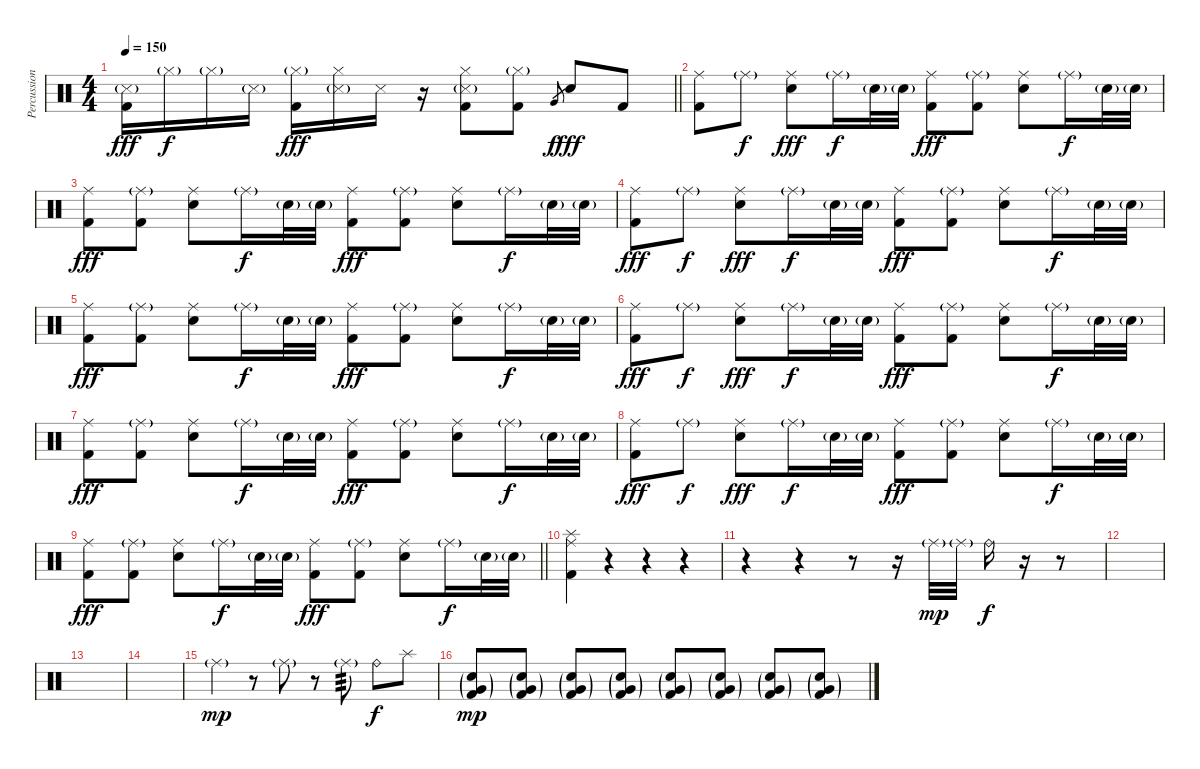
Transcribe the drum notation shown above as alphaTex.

\track ("Percussion" "Percussion") {instrument percussion}
\staff {score}
\articulation defaults
\ts (4 4)
\tempo 150
\clef neutral
\barLineRight lightlight
\ks c
("Snare (side stick) 3"{g} "Kick (hit) 2").16{dy fff} "Hi-Hat (closed)"{g}.16{dy f} "Hi-Hat (closed)"{g}.16 "Snare (side stick) 3"{g}.16 ("Hi-Hat (closed)"{g} "Kick (hit) 2").16{dy fff} ("Hi-Hat (closed)" "Snare (side stick) 3"{g}).16 "Snare (side stick) 3".16 r.16 ("Hi-Hat (closed)" "Snare (side stick) 3"{g} "Kick (hit) 2").8 ("Hi-Hat (closed)"{g} "Kick (hit) 2").8 "Very Low Tom (hit)".8{gr dy f} "Electric Snare (hit)".8{dy fff} "Kick (hit) 2".8 |
\section ("" "")
("Ride (middle)" "Kick (hit) 2").8 "Ride (middle)"{g}.8{dy f} ("Ride (middle)" "Electric Snare (hit)").8{dy fff} "Ride (middle)"{g}.16{dy f} "Electric Snare (hit)"{g}.32 "Electric Snare (hit)"{g}.32 ("Ride (middle)" "Kick (hit) 2").8{dy fff} ("Ride (middle)"{g} "Kick (hit) 2").8 ("Ride (middle)" "Electric Snare (hit)").8 "Ride (middle)"{g}.16{dy f} "Electric Snare (hit)"{g}.32 "Electric Snare (hit)"{g}.32 |
("Ride (middle)" "Kick (hit) 2").8{dy fff} ("Ride (middle)"{g} "Kick (hit) 2").8 ("Ride (middle)" "Electric Snare (hit)").8 "Ride (middle)"{g}.16{dy f} "Electric Snare (hit)"{g}.32 "Electric Snare (hit)"{g}.32 ("Ride (middle)" "Kick (hit) 2").8{dy fff} ("Ride (middle)"{g} "Kick (hit) 2").8 ("Ride (middle)" "Electric Snare (hit)").8 "Ride (middle)"{g}.16{dy f} "Electric Snare (hit)"{g}.32 "Electric Snare (hit)"{g}.32 |
("Ride (middle)" "Kick (hit) 2").8{dy fff} "Ride (middle)"{g}.8{dy f} ("Ride (middle)" "Electric Snare (hit)").8{dy fff} "Ride (middle)"{g}.16{dy f} "Electric Snare (hit)"{g}.32 "Electric Snare (hit)"{g}.32 ("Ride (middle)" "Kick (hit) 2").8{dy fff} ("Ride (middle)"{g} "Kick (hit) 2").8 ("Ride (middle)" "Electric Snare (hit)").8 "Ride (middle)"{g}.16{dy f} "Electric Snare (hit)"{g}.32 "Electric Snare (hit)"{g}.32 |
("Ride (middle)" "Kick (hit) 2").8{dy fff} ("Ride (middle)"{g} "Kick (hit) 2").8 ("Ride (middle)" "Electric Snare (hit)").8 "Ride (middle)"{g}.16{dy f} "Electric Snare (hit)"{g}.32 "Electric Snare (hit)"{g}.32 ("Ride (middle)" "Kick (hit) 2").8{dy fff} ("Ride (middle)"{g} "Kick (hit) 2").8 ("Ride (middle)" "Electric Snare (hit)").8 "Ride (middle)"{g}.16{dy f} "Electric Snare (hit)"{g}.32 "Electric Snare (hit)"{g}.32 |
("Ride (middle)" "Kick (hit) 2").8{dy fff} "Ride (middle)"{g}.8{dy f} ("Ride (middle)" "Electric Snare (hit)").8{dy fff} "Ride (middle)"{g}.16{dy f} "Electric Snare (hit)"{g}.32 "Electric Snare (hit)"{g}.32 ("Ride (middle)" "Kick (hit) 2").8{dy fff} ("Ride (middle)"{g} "Kick (hit) 2").8 ("Ride (middle)" "Electric Snare (hit)").8 "Ride (middle)"{g}.16{dy f} "Electric Snare (hit)"{g}.32 "Electric Snare (hit)"{g}.32 |
("Ride (middle)" "Kick (hit) 2").8{dy fff} ("Ride (middle)"{g} "Kick (hit) 2").8 ("Ride (middle)" "Electric Snare (hit)").8 "Ride (middle)"{g}.16{dy f} "Electric Snare (hit)"{g}.32 "Electric Snare (hit)"{g}.32 ("Ride (middle)" "Kick (hit) 2").8{dy fff} ("Ride (middle)"{g} "Kick (hit) 2").8 ("Ride (middle)" "Electric Snare (hit)").8 "Ride (middle)"{g}.16{dy f} "Electric Snare (hit)"{g}.32 "Electric Snare (hit)"{g}.32 |
("Ride (middle)" "Kick (hit) 2").8{dy fff} "Ride (middle)"{g}.8{dy f} ("Ride (middle)" "Electric Snare (hit)").8{dy fff} "Ride (middle)"{g}.16{dy f} "Electric Snare (hit)"{g}.32 "Electric Snare (hit)"{g}.32 ("Ride (middle)" "Kick (hit) 2").8{dy fff} ("Ride (middle)"{g} "Kick (hit) 2").8 ("Ride (middle)" "Electric Snare (hit)").8 "Ride (middle)"{g}.16{dy f} "Electric Snare (hit)"{g}.32 "Electric Snare (hit)"{g}.32 |
\barLineRight lightlight
("Ride (middle)" "Kick (hit) 2").8{dy fff} ("Ride (middle)"{g} "Kick (hit) 2").8 ("Ride (middle)" "Electric Snare (hit)").8 "Ride (middle)"{g}.16{dy f} "Electric Snare (hit)"{g}.32 "Electric Snare (hit)"{g}.32 ("Ride (middle)" "Kick (hit) 2").8{dy fff} ("Ride (middle)"{g} "Kick (hit) 2").8 ("Ride (middle)" "Electric Snare (hit)").8 "Ride (middle)"{g}.16{dy f} "Electric Snare (hit)"{g}.32 "Electric Snare (hit)"{g}.32 |
\section ("" "")
("Ride (middle)" "Splash (hit)" "Kick (hit) 2").4 r.4 r.4 r.4 |
r.4 r.4 r.8 r.16 "Ride (middle)"{g}.32{dy mp} "Ride (middle)"{g}.32 "Ride (bell)".16{dy f} r.16 r.8 |
|
|
|
"Ride (middle)"{g}.4{dy mp} r.8 "Ride (middle)"{g}.8 r.8 "Ride (middle)"{g}.8{tp 3} "Ride (bell)".8{dy f} "Splash (hit)".8 |
("Electric Snare (hit)"{g} "Very Low Tom (hit)"{g} "Kick (hit) 2"{g}).8{dy mp} ("Electric Snare (hit)"{g} "Very Low Tom (hit)"{g} "Kick (hit) 2"{g}).8 ("Electric Snare (hit)"{g} "Very Low Tom (hit)"{g} "Kick (hit) 2"{g}).8 ("Electric Snare (hit)"{g} "Very Low Tom (hit)"{g} "Kick (hit) 2"{g}).8 ("Electric Snare (hit)"{g} "Very Low Tom (hit)"{g} "Kick (hit) 2"{g}).8 ("Electric Snare (hit)"{g} "Very Low Tom (hit)"{g} "Kick (hit) 2"{g}).8 ("Electric Snare (hit)"{g} "Very Low Tom (hit)"{g} "Kick (hit) 2"{g}).8 ("Electric Snare (hit)"{g} "Very Low Tom (hit)"{g} "Kick (hit) 2"{g}).8
